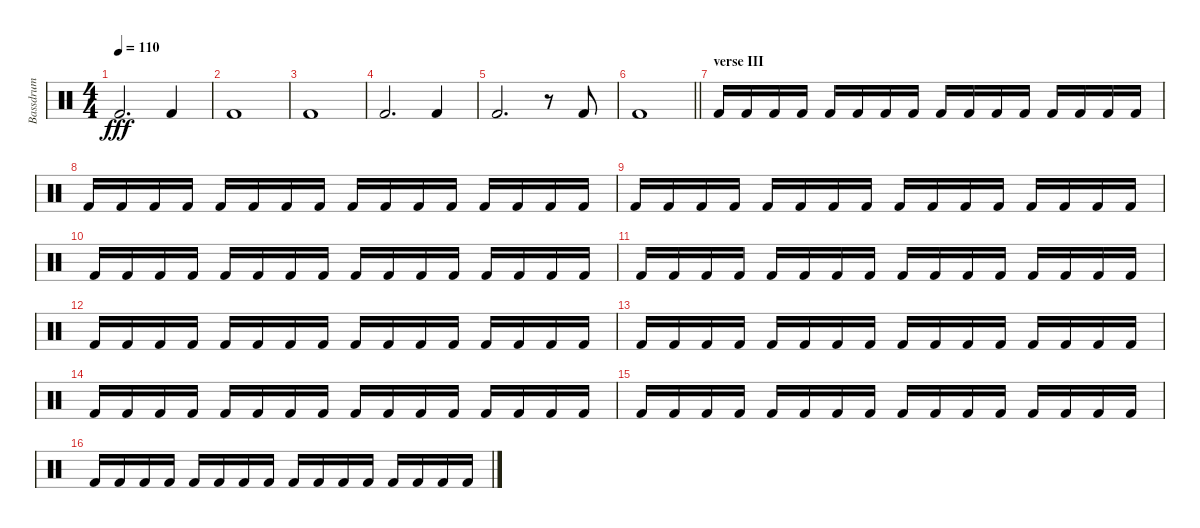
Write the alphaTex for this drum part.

\track ("Bassdrum" "Bassdrum") {instrument percussion}
\staff {score}
\articulation defaults
\ts (4 4)
\tempo 110
\clef neutral
\ks c "Kick (hit) 2".2{d dy fff} "Kick (hit) 2".4
|
"Kick (hit) 2".1 |
"Kick (hit) 2".1 |
"Kick (hit) 2".2{d} "Kick (hit) 2".4 |
"Kick (hit) 2".2{d} r.8 "Kick (hit) 2".8 |
\barLineRight lightlight "Kick (hit) 2".1
|
\section ("" "verse III")
"Kick (hit) 2".16 "Kick (hit) 2".16 "Kick (hit) 2".16 "Kick (hit) 2".16 "Kick (hit) 2".16 "Kick (hit) 2".16 "Kick (hit) 2".16 "Kick (hit) 2".16 "Kick (hit) 2".16 "Kick (hit) 2".16 "Kick (hit) 2".16 "Kick (hit) 2".16 "Kick (hit) 2".16 "Kick (hit) 2".16 "Kick (hit) 2".16 "Kick (hit) 2".16 |
"Kick (hit) 2".16 "Kick (hit) 2".16 "Kick (hit) 2".16 "Kick (hit) 2".16 "Kick (hit) 2".16 "Kick (hit) 2".16 "Kick (hit) 2".16 "Kick (hit) 2".16 "Kick (hit) 2".16 "Kick (hit) 2".16 "Kick (hit) 2".16 "Kick (hit) 2".16 "Kick (hit) 2".16 "Kick (hit) 2".16 "Kick (hit) 2".16 "Kick (hit) 2".16 |
"Kick (hit) 2".16 "Kick (hit) 2".16 "Kick (hit) 2".16 "Kick (hit) 2".16 "Kick (hit) 2".16 "Kick (hit) 2".16 "Kick (hit) 2".16 "Kick (hit) 2".16 "Kick (hit) 2".16 "Kick (hit) 2".16 "Kick (hit) 2".16 "Kick (hit) 2".16 "Kick (hit) 2".16 "Kick (hit) 2".16 "Kick (hit) 2".16 "Kick (hit) 2".16 |
"Kick (hit) 2".16 "Kick (hit) 2".16 "Kick (hit) 2".16 "Kick (hit) 2".16 "Kick (hit) 2".16 "Kick (hit) 2".16 "Kick (hit) 2".16 "Kick (hit) 2".16 "Kick (hit) 2".16 "Kick (hit) 2".16 "Kick (hit) 2".16 "Kick (hit) 2".16 "Kick (hit) 2".16 "Kick (hit) 2".16 "Kick (hit) 2".16 "Kick (hit) 2".16 |
"Kick (hit) 2".16 "Kick (hit) 2".16 "Kick (hit) 2".16 "Kick (hit) 2".16 "Kick (hit) 2".16 "Kick (hit) 2".16 "Kick (hit) 2".16 "Kick (hit) 2".16 "Kick (hit) 2".16 "Kick (hit) 2".16 "Kick (hit) 2".16 "Kick (hit) 2".16 "Kick (hit) 2".16 "Kick (hit) 2".16 "Kick (hit) 2".16 "Kick (hit) 2".16 |
"Kick (hit) 2".16 "Kick (hit) 2".16 "Kick (hit) 2".16 "Kick (hit) 2".16 "Kick (hit) 2".16 "Kick (hit) 2".16 "Kick (hit) 2".16 "Kick (hit) 2".16 "Kick (hit) 2".16 "Kick (hit) 2".16 "Kick (hit) 2".16 "Kick (hit) 2".16 "Kick (hit) 2".16 "Kick (hit) 2".16 "Kick (hit) 2".16 "Kick (hit) 2".16 |
"Kick (hit) 2".16 "Kick (hit) 2".16 "Kick (hit) 2".16 "Kick (hit) 2".16 "Kick (hit) 2".16 "Kick (hit) 2".16 "Kick (hit) 2".16 "Kick (hit) 2".16 "Kick (hit) 2".16 "Kick (hit) 2".16 "Kick (hit) 2".16 "Kick (hit) 2".16 "Kick (hit) 2".16 "Kick (hit) 2".16 "Kick (hit) 2".16 "Kick (hit) 2".16 |
"Kick (hit) 2".16 "Kick (hit) 2".16 "Kick (hit) 2".16 "Kick (hit) 2".16 "Kick (hit) 2".16 "Kick (hit) 2".16 "Kick (hit) 2".16 "Kick (hit) 2".16 "Kick (hit) 2".16 "Kick (hit) 2".16 "Kick (hit) 2".16 "Kick (hit) 2".16 "Kick (hit) 2".16 "Kick (hit) 2".16 "Kick (hit) 2".16 "Kick (hit) 2".16 |
"Kick (hit) 2".16 "Kick (hit) 2".16 "Kick (hit) 2".16 "Kick (hit) 2".16 "Kick (hit) 2".16 "Kick (hit) 2".16 "Kick (hit) 2".16 "Kick (hit) 2".16 "Kick (hit) 2".16 "Kick (hit) 2".16 "Kick (hit) 2".16 "Kick (hit) 2".16 "Kick (hit) 2".16 "Kick (hit) 2".16 "Kick (hit) 2".16 "Kick (hit) 2".16 |
"Kick (hit) 2".16 "Kick (hit) 2".16 "Kick (hit) 2".16 "Kick (hit) 2".16 "Kick (hit) 2".16 "Kick (hit) 2".16 "Kick (hit) 2".16 "Kick (hit) 2".16 "Kick (hit) 2".16 "Kick (hit) 2".16 "Kick (hit) 2".16 "Kick (hit) 2".16 "Kick (hit) 2".16 "Kick (hit) 2".16 "Kick (hit) 2".16 "Kick (hit) 2".16
